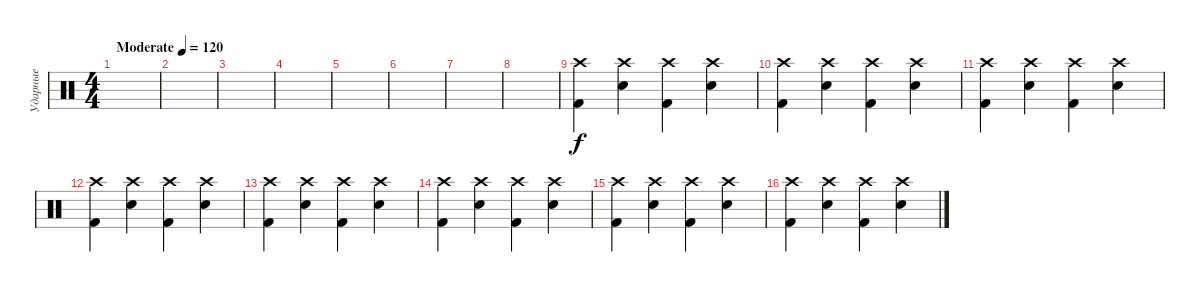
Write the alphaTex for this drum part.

\track ("Ударные" "Ударные") {instrument percussion}
\staff {score}
\articulation defaults
\ts (4 4)
\tempo (120 "Moderate")
\clef neutral
\ks c
|
|
|
|
|
|
|
|
("Crash high (hit)" "Kick (hit) 2").4 ("Crash high (hit)" "Snare (hit) 2").4 ("Crash high (hit)" "Kick (hit) 2").4 ("Crash high (hit)" "Snare (hit) 2").4 |
("Crash high (hit)" "Kick (hit) 2").4 ("Crash high (hit)" "Snare (hit) 2").4 ("Crash high (hit)" "Kick (hit) 2").4 ("Crash high (hit)" "Snare (hit) 2").4 |
("Crash high (hit)" "Kick (hit) 2").4 ("Crash high (hit)" "Snare (hit) 2").4 ("Crash high (hit)" "Kick (hit) 2").4 ("Crash high (hit)" "Snare (hit) 2").4 |
("Crash high (hit)" "Kick (hit) 2").4 ("Crash high (hit)" "Snare (hit) 2").4 ("Crash high (hit)" "Kick (hit) 2").4 ("Crash high (hit)" "Snare (hit) 2").4 |
("Crash high (hit)" "Kick (hit) 2").4 ("Crash high (hit)" "Snare (hit) 2").4 ("Crash high (hit)" "Kick (hit) 2").4 ("Crash high (hit)" "Snare (hit) 2").4 |
("Crash high (hit)" "Kick (hit) 2").4 ("Crash high (hit)" "Snare (hit) 2").4 ("Crash high (hit)" "Kick (hit) 2").4 ("Crash high (hit)" "Snare (hit) 2").4 |
("Crash high (hit)" "Kick (hit) 2").4 ("Crash high (hit)" "Snare (hit) 2").4 ("Crash high (hit)" "Kick (hit) 2").4 ("Crash high (hit)" "Snare (hit) 2").4 |
("Crash high (hit)" "Kick (hit) 2").4 ("Crash high (hit)" "Snare (hit) 2").4 ("Crash high (hit)" "Kick (hit) 2").4 ("Crash high (hit)" "Snare (hit) 2").4
